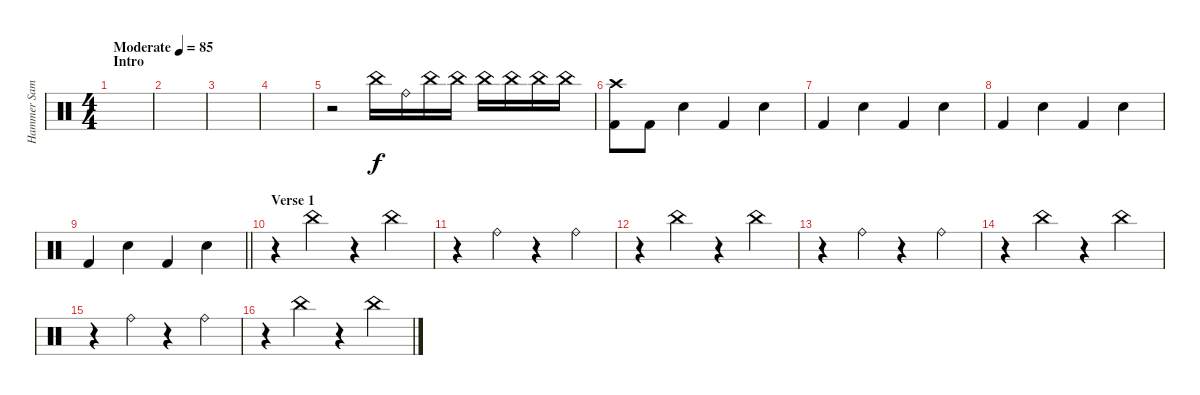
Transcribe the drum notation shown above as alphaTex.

\track ("Hammer Samples" "Hammer Sam") {instrument percussion}
\staff {score}
\articulation defaults
\ts (4 4)
\section ("" "Intro")
\tempo (85 "Moderate")
\clef neutral
\ks c
|
|
|
|
r.2 "China (hit)".16 "Ride (bell)".16 "China (hit)".16 "China (hit)".16 "China (hit)".16 "China (hit)".16 "China (hit)".16 "China (hit)".16 |
("Crash high (hit)" "Kick (hit) 2").8 "Kick (hit) 2".8 "Electric Snare (hit)".4 "Kick (hit) 2".4 "Electric Snare (hit)".4 |
"Kick (hit) 2".4 "Electric Snare (hit)".4 "Kick (hit) 2".4 "Electric Snare (hit)".4 |
"Kick (hit) 2".4 "Electric Snare (hit)".4 "Kick (hit) 2".4 "Electric Snare (hit)".4 |
\barLineRight lightlight "Kick (hit) 2".4 "Electric Snare (hit)".4 "Kick (hit) 2".4 "Electric Snare (hit)".4
|
\section ("" "Verse 1")
r.4 "China (hit)".4 r.4 "China (hit)".4 |
r.4 "Ride (bell)".4 r.4 "Ride (bell)".4 |
r.4 "China (hit)".4 r.4 "China (hit)".4 |
r.4 "Ride (bell)".4 r.4 "Ride (bell)".4 |
r.4 "China (hit)".4 r.4 "China (hit)".4 |
r.4 "Ride (bell)".4 r.4 "Ride (bell)".4 |
r.4 "China (hit)".4 r.4 "China (hit)".4
